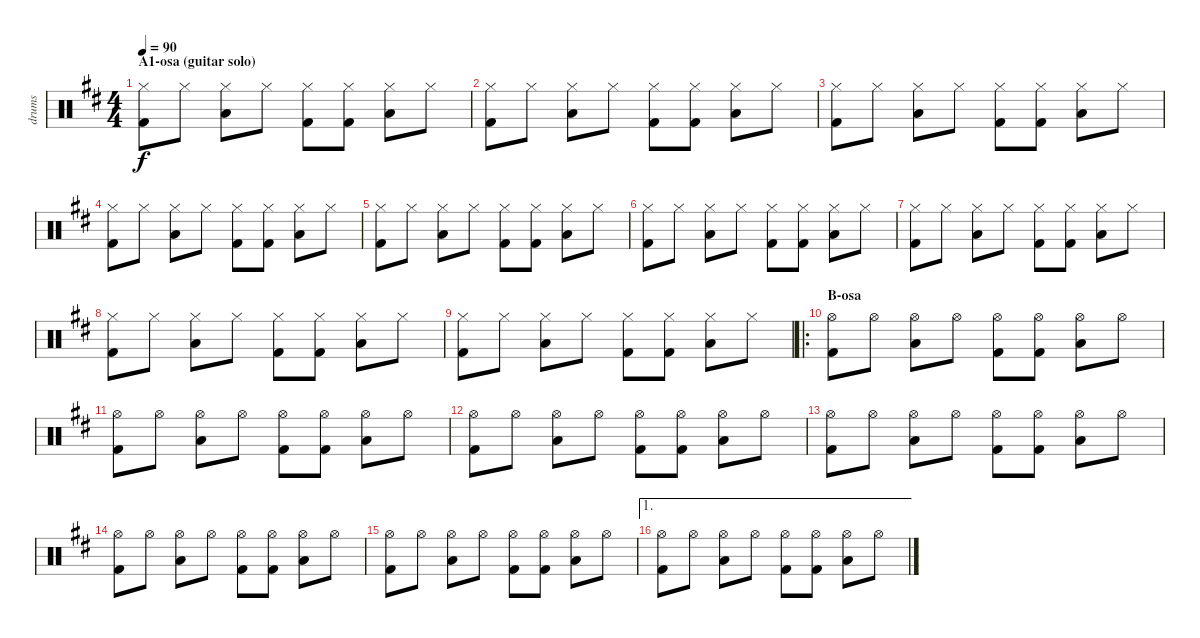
\track ("drums" "drums") {instrument percussion}
\staff {score}
\articulation defaults
\ts (4 4)
\section ("" "A1-osa (guitar solo)")
\tempo 90
\clef neutral
\ks d
("Hi-Hat (closed)" "Kick (hit) 2").8{dy f} "Hi-Hat (closed)".8 ("Hi-Hat (closed)" "Low Tom (hit)").8 "Hi-Hat (closed)".8 ("Hi-Hat (closed)" "Kick (hit) 2").8 ("Hi-Hat (closed)" "Kick (hit) 2").8 ("Hi-Hat (closed)" "Low Tom (hit)").8 "Hi-Hat (closed)".8 |
("Hi-Hat (closed)" "Kick (hit) 2").8 "Hi-Hat (closed)".8 ("Hi-Hat (closed)" "Low Tom (hit)").8 "Hi-Hat (closed)".8 ("Hi-Hat (closed)" "Kick (hit) 2").8 ("Hi-Hat (closed)" "Kick (hit) 2").8 ("Hi-Hat (closed)" "Low Tom (hit)").8 "Hi-Hat (closed)".8 |
("Hi-Hat (closed)" "Kick (hit) 2").8 "Hi-Hat (closed)".8 ("Hi-Hat (closed)" "Low Tom (hit)").8 "Hi-Hat (closed)".8 ("Hi-Hat (closed)" "Kick (hit) 2").8 ("Hi-Hat (closed)" "Kick (hit) 2").8 ("Hi-Hat (closed)" "Low Tom (hit)").8 "Hi-Hat (closed)".8 |
("Hi-Hat (closed)" "Kick (hit) 2").8 "Hi-Hat (closed)".8 ("Hi-Hat (closed)" "Low Tom (hit)").8 "Hi-Hat (closed)".8 ("Hi-Hat (closed)" "Kick (hit) 2").8 ("Hi-Hat (closed)" "Kick (hit) 2").8 ("Hi-Hat (closed)" "Low Tom (hit)").8 "Hi-Hat (closed)".8 |
("Hi-Hat (closed)" "Kick (hit) 2").8 "Hi-Hat (closed)".8 ("Hi-Hat (closed)" "Low Tom (hit)").8 "Hi-Hat (closed)".8 ("Hi-Hat (closed)" "Kick (hit) 2").8 ("Hi-Hat (closed)" "Kick (hit) 2").8 ("Hi-Hat (closed)" "Low Tom (hit)").8 "Hi-Hat (closed)".8 |
("Hi-Hat (closed)" "Kick (hit) 2").8 "Hi-Hat (closed)".8 ("Hi-Hat (closed)" "Low Tom (hit)").8 "Hi-Hat (closed)".8 ("Hi-Hat (closed)" "Kick (hit) 2").8 ("Hi-Hat (closed)" "Kick (hit) 2").8 ("Hi-Hat (closed)" "Low Tom (hit)").8 "Hi-Hat (closed)".8 |
("Hi-Hat (closed)" "Kick (hit) 2").8 "Hi-Hat (closed)".8 ("Hi-Hat (closed)" "Low Tom (hit)").8 "Hi-Hat (closed)".8 ("Hi-Hat (closed)" "Kick (hit) 2").8 ("Hi-Hat (closed)" "Kick (hit) 2").8 ("Hi-Hat (closed)" "Low Tom (hit)").8 "Hi-Hat (closed)".8 |
("Hi-Hat (closed)" "Kick (hit) 2").8 "Hi-Hat (closed)".8 ("Hi-Hat (closed)" "Low Tom (hit)").8 "Hi-Hat (closed)".8 ("Hi-Hat (closed)" "Kick (hit) 2").8 ("Hi-Hat (closed)" "Kick (hit) 2").8 ("Hi-Hat (closed)" "Low Tom (hit)").8 "Hi-Hat (closed)".8 |
("Hi-Hat (closed)" "Kick (hit) 2").8 "Hi-Hat (closed)".8 ("Hi-Hat (closed)" "Low Tom (hit)").8 "Hi-Hat (closed)".8 ("Hi-Hat (closed)" "Kick (hit) 2").8 ("Hi-Hat (closed)" "Kick (hit) 2").8 ("Hi-Hat (closed)" "Low Tom (hit)").8 "Hi-Hat (closed)".8 |
\ro
\section ("" "B-osa")
("Hi-Hat (open)" "Kick (hit) 2").8 "Hi-Hat (open)".8 ("Hi-Hat (open)" "Low Tom (hit)").8 "Hi-Hat (open)".8 ("Hi-Hat (open)" "Kick (hit) 2").8 ("Hi-Hat (open)" "Kick (hit) 2").8 ("Hi-Hat (open)" "Low Tom (hit)").8 "Hi-Hat (open)".8 |
("Hi-Hat (open)" "Kick (hit) 2").8 "Hi-Hat (open)".8 ("Hi-Hat (open)" "Low Tom (hit)").8 "Hi-Hat (open)".8 ("Hi-Hat (open)" "Kick (hit) 2").8 ("Hi-Hat (open)" "Kick (hit) 2").8 ("Hi-Hat (open)" "Low Tom (hit)").8 "Hi-Hat (open)".8 |
("Hi-Hat (open)" "Kick (hit) 2").8 "Hi-Hat (open)".8 ("Hi-Hat (open)" "Low Tom (hit)").8 "Hi-Hat (open)".8 ("Hi-Hat (open)" "Kick (hit) 2").8 ("Hi-Hat (open)" "Kick (hit) 2").8 ("Hi-Hat (open)" "Low Tom (hit)").8 "Hi-Hat (open)".8 |
("Hi-Hat (open)" "Kick (hit) 2").8 "Hi-Hat (open)".8 ("Hi-Hat (open)" "Low Tom (hit)").8 "Hi-Hat (open)".8 ("Hi-Hat (open)" "Kick (hit) 2").8 ("Hi-Hat (open)" "Kick (hit) 2").8 ("Hi-Hat (open)" "Low Tom (hit)").8 "Hi-Hat (open)".8 |
("Hi-Hat (open)" "Kick (hit) 2").8 "Hi-Hat (open)".8 ("Hi-Hat (open)" "Low Tom (hit)").8 "Hi-Hat (open)".8 ("Hi-Hat (open)" "Kick (hit) 2").8 ("Hi-Hat (open)" "Kick (hit) 2").8 ("Hi-Hat (open)" "Low Tom (hit)").8 "Hi-Hat (open)".8 |
("Hi-Hat (open)" "Kick (hit) 2").8 "Hi-Hat (open)".8 ("Hi-Hat (open)" "Low Tom (hit)").8 "Hi-Hat (open)".8 ("Hi-Hat (open)" "Kick (hit) 2").8 ("Hi-Hat (open)" "Kick (hit) 2").8 ("Hi-Hat (open)" "Low Tom (hit)").8 "Hi-Hat (open)".8 |
\ae 1
("Hi-Hat (open)" "Kick (hit) 2").8 "Hi-Hat (open)".8 ("Hi-Hat (open)" "Low Tom (hit)").8 "Hi-Hat (open)".8 ("Hi-Hat (open)" "Kick (hit) 2").8 ("Hi-Hat (open)" "Kick (hit) 2").8 ("Hi-Hat (open)" "Low Tom (hit)").8 "Hi-Hat (open)".8
